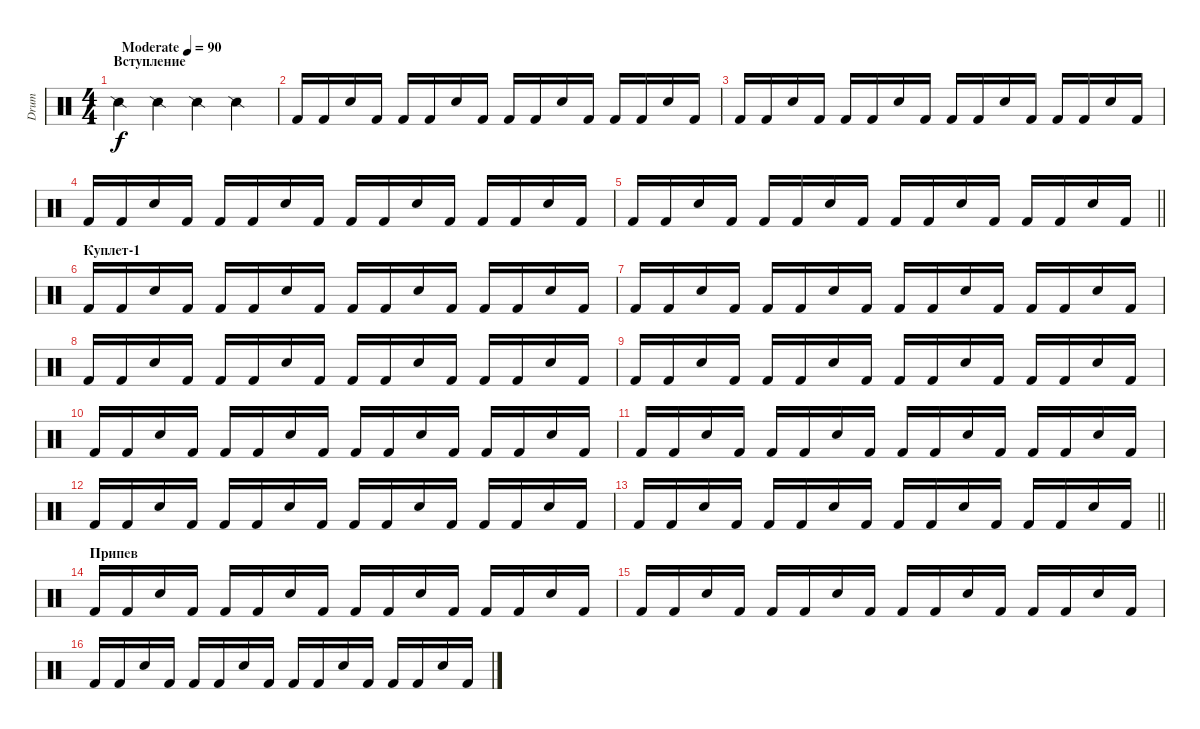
\track ("Drum" "Drum") {instrument percussion}
\staff {score}
\articulation defaults
\ts (4 4)
\section ("" "Вступление")
\tempo (90 "Moderate")
\clef neutral
\ks c "Snare (side stick) 2".4{dy f} "Snare (side stick) 2".4 "Snare (side stick) 2".4 "Snare (side stick) 2".4
|
"Kick (hit) 2".16 "Kick (hit) 2".16 "Snare (hit) 2".16 "Kick (hit) 2".16 "Kick (hit) 2".16 "Kick (hit) 2".16 "Snare (hit) 2".16 "Kick (hit) 2".16 "Kick (hit) 2".16 "Kick (hit) 2".16 "Snare (hit) 2".16 "Kick (hit) 2".16 "Kick (hit) 2".16 "Kick (hit) 2".16 "Snare (hit) 2".16 "Kick (hit) 2".16 |
"Kick (hit) 2".16 "Kick (hit) 2".16 "Snare (hit) 2".16 "Kick (hit) 2".16 "Kick (hit) 2".16 "Kick (hit) 2".16 "Snare (hit) 2".16 "Kick (hit) 2".16 "Kick (hit) 2".16 "Kick (hit) 2".16 "Snare (hit) 2".16 "Kick (hit) 2".16 "Kick (hit) 2".16 "Kick (hit) 2".16 "Snare (hit) 2".16 "Kick (hit) 2".16 |
"Kick (hit) 2".16 "Kick (hit) 2".16 "Snare (hit) 2".16 "Kick (hit) 2".16 "Kick (hit) 2".16 "Kick (hit) 2".16 "Snare (hit) 2".16 "Kick (hit) 2".16 "Kick (hit) 2".16 "Kick (hit) 2".16 "Snare (hit) 2".16 "Kick (hit) 2".16 "Kick (hit) 2".16 "Kick (hit) 2".16 "Snare (hit) 2".16 "Kick (hit) 2".16 |
\barLineRight lightlight "Kick (hit) 2".16 "Kick (hit) 2".16 "Snare (hit) 2".16 "Kick (hit) 2".16 "Kick (hit) 2".16 "Kick (hit) 2".16 "Snare (hit) 2".16 "Kick (hit) 2".16 "Kick (hit) 2".16 "Kick (hit) 2".16 "Snare (hit) 2".16 "Kick (hit) 2".16 "Kick (hit) 2".16 "Kick (hit) 2".16 "Snare (hit) 2".16 "Kick (hit) 2".16
|
\section ("" "Куплет-1")
"Kick (hit) 2".16 "Kick (hit) 2".16 "Snare (hit) 2".16 "Kick (hit) 2".16 "Kick (hit) 2".16 "Kick (hit) 2".16 "Snare (hit) 2".16 "Kick (hit) 2".16 "Kick (hit) 2".16 "Kick (hit) 2".16 "Snare (hit) 2".16 "Kick (hit) 2".16 "Kick (hit) 2".16 "Kick (hit) 2".16 "Snare (hit) 2".16 "Kick (hit) 2".16 |
"Kick (hit) 2".16 "Kick (hit) 2".16 "Snare (hit) 2".16 "Kick (hit) 2".16 "Kick (hit) 2".16 "Kick (hit) 2".16 "Snare (hit) 2".16 "Kick (hit) 2".16 "Kick (hit) 2".16 "Kick (hit) 2".16 "Snare (hit) 2".16 "Kick (hit) 2".16 "Kick (hit) 2".16 "Kick (hit) 2".16 "Snare (hit) 2".16 "Kick (hit) 2".16 |
"Kick (hit) 2".16 "Kick (hit) 2".16 "Snare (hit) 2".16 "Kick (hit) 2".16 "Kick (hit) 2".16 "Kick (hit) 2".16 "Snare (hit) 2".16 "Kick (hit) 2".16 "Kick (hit) 2".16 "Kick (hit) 2".16 "Snare (hit) 2".16 "Kick (hit) 2".16 "Kick (hit) 2".16 "Kick (hit) 2".16 "Snare (hit) 2".16 "Kick (hit) 2".16 |
"Kick (hit) 2".16 "Kick (hit) 2".16 "Snare (hit) 2".16 "Kick (hit) 2".16 "Kick (hit) 2".16 "Kick (hit) 2".16 "Snare (hit) 2".16 "Kick (hit) 2".16 "Kick (hit) 2".16 "Kick (hit) 2".16 "Snare (hit) 2".16 "Kick (hit) 2".16 "Kick (hit) 2".16 "Kick (hit) 2".16 "Snare (hit) 2".16 "Kick (hit) 2".16 |
"Kick (hit) 2".16 "Kick (hit) 2".16 "Snare (hit) 2".16 "Kick (hit) 2".16 "Kick (hit) 2".16 "Kick (hit) 2".16 "Snare (hit) 2".16 "Kick (hit) 2".16 "Kick (hit) 2".16 "Kick (hit) 2".16 "Snare (hit) 2".16 "Kick (hit) 2".16 "Kick (hit) 2".16 "Kick (hit) 2".16 "Snare (hit) 2".16 "Kick (hit) 2".16 |
"Kick (hit) 2".16 "Kick (hit) 2".16 "Snare (hit) 2".16 "Kick (hit) 2".16 "Kick (hit) 2".16 "Kick (hit) 2".16 "Snare (hit) 2".16 "Kick (hit) 2".16 "Kick (hit) 2".16 "Kick (hit) 2".16 "Snare (hit) 2".16 "Kick (hit) 2".16 "Kick (hit) 2".16 "Kick (hit) 2".16 "Snare (hit) 2".16 "Kick (hit) 2".16 |
"Kick (hit) 2".16 "Kick (hit) 2".16 "Snare (hit) 2".16 "Kick (hit) 2".16 "Kick (hit) 2".16 "Kick (hit) 2".16 "Snare (hit) 2".16 "Kick (hit) 2".16 "Kick (hit) 2".16 "Kick (hit) 2".16 "Snare (hit) 2".16 "Kick (hit) 2".16 "Kick (hit) 2".16 "Kick (hit) 2".16 "Snare (hit) 2".16 "Kick (hit) 2".16 |
\barLineRight lightlight "Kick (hit) 2".16 "Kick (hit) 2".16 "Snare (hit) 2".16 "Kick (hit) 2".16 "Kick (hit) 2".16 "Kick (hit) 2".16 "Snare (hit) 2".16 "Kick (hit) 2".16 "Kick (hit) 2".16 "Kick (hit) 2".16 "Snare (hit) 2".16 "Kick (hit) 2".16 "Kick (hit) 2".16 "Kick (hit) 2".16 "Snare (hit) 2".16 "Kick (hit) 2".16
|
\section ("" "Припев")
"Kick (hit) 2".16 "Kick (hit) 2".16 "Snare (hit) 2".16 "Kick (hit) 2".16 "Kick (hit) 2".16 "Kick (hit) 2".16 "Snare (hit) 2".16 "Kick (hit) 2".16 "Kick (hit) 2".16 "Kick (hit) 2".16 "Snare (hit) 2".16 "Kick (hit) 2".16 "Kick (hit) 2".16 "Kick (hit) 2".16 "Snare (hit) 2".16 "Kick (hit) 2".16 |
"Kick (hit) 2".16 "Kick (hit) 2".16 "Snare (hit) 2".16 "Kick (hit) 2".16 "Kick (hit) 2".16 "Kick (hit) 2".16 "Snare (hit) 2".16 "Kick (hit) 2".16 "Kick (hit) 2".16 "Kick (hit) 2".16 "Snare (hit) 2".16 "Kick (hit) 2".16 "Kick (hit) 2".16 "Kick (hit) 2".16 "Snare (hit) 2".16 "Kick (hit) 2".16 |
"Kick (hit) 2".16 "Kick (hit) 2".16 "Snare (hit) 2".16 "Kick (hit) 2".16 "Kick (hit) 2".16 "Kick (hit) 2".16 "Snare (hit) 2".16 "Kick (hit) 2".16 "Kick (hit) 2".16 "Kick (hit) 2".16 "Snare (hit) 2".16 "Kick (hit) 2".16 "Kick (hit) 2".16 "Kick (hit) 2".16 "Snare (hit) 2".16 "Kick (hit) 2".16
